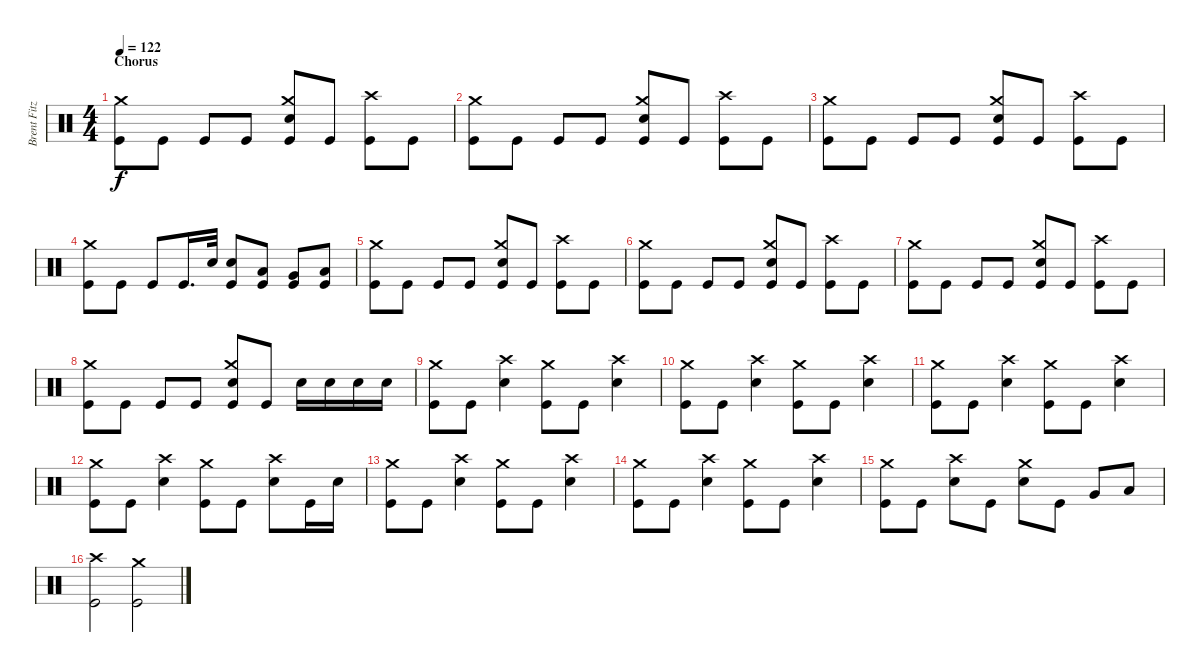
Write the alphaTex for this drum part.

\track ("Brent Fitz" "Brent Fitz") {instrument percussion}
\staff {score}
\articulation defaults
\ts (4 4)
\section ("" "Chorus")
\tempo 122
\clef neutral
\ks c
("Kick (hit)" "Crash medium (hit)").8{dy f} "Kick (hit)".8 "Kick (hit)".8 "Kick (hit)".8 ("Snare (hit) 2" "Crash medium (hit)" "Kick (hit)").8 "Kick (hit)".8 ("Kick (hit)" "Crash high (hit)").8 "Kick (hit)".8 |
("Kick (hit)" "Crash medium (hit)").8 "Kick (hit)".8 "Kick (hit)".8 "Kick (hit)".8 ("Snare (hit) 2" "Crash medium (hit)" "Kick (hit)").8 "Kick (hit)".8 ("Kick (hit)" "Crash high (hit)").8 "Kick (hit)".8 |
("Kick (hit)" "Crash medium (hit)").8 "Kick (hit)".8 "Kick (hit)".8 "Kick (hit)".8 ("Snare (hit) 2" "Crash medium (hit)" "Kick (hit)").8 "Kick (hit)".8 ("Kick (hit)" "Crash high (hit)").8 "Kick (hit)".8 |
("Kick (hit)" "Crash medium (hit)").8 "Kick (hit)".8 "Kick (hit)".8 "Kick (hit)".16{d} "Snare (hit) 2".32 ("Snare (hit) 2" "Kick (hit)").8 ("Low Tom (hit)" "Kick (hit)").8 ("Very Low Tom (hit)" "Kick (hit)").8 ("Low Floor Tom (hit)" "Kick (hit)").8 |
("Kick (hit)" "Crash medium (hit)").8 "Kick (hit)".8 "Kick (hit)".8 "Kick (hit)".8 ("Snare (hit) 2" "Crash medium (hit)" "Kick (hit)").8 "Kick (hit)".8 ("Kick (hit)" "Crash high (hit)").8 "Kick (hit)".8 |
("Kick (hit)" "Crash medium (hit)").8 "Kick (hit)".8 "Kick (hit)".8 "Kick (hit)".8 ("Snare (hit) 2" "Crash medium (hit)" "Kick (hit)").8 "Kick (hit)".8 ("Kick (hit)" "Crash high (hit)").8 "Kick (hit)".8 |
("Kick (hit)" "Crash medium (hit)").8 "Kick (hit)".8 "Kick (hit)".8 "Kick (hit)".8 ("Snare (hit) 2" "Crash medium (hit)" "Kick (hit)").8 "Kick (hit)".8 ("Kick (hit)" "Crash high (hit)").8 "Kick (hit)".8 |
("Kick (hit)" "Crash medium (hit)").8 "Kick (hit)".8 "Kick (hit)".8 "Kick (hit)".8 ("Snare (hit) 2" "Crash medium (hit)" "Kick (hit)").8 "Kick (hit)".8 "Snare (hit) 2".16 "Snare (hit) 2".16 "Snare (hit) 2".16 "Snare (hit) 2".16 |
("Kick (hit)" "Crash medium (hit)").8 "Kick (hit)".8 ("Snare (hit) 2" "Crash high (hit)").4 ("Kick (hit)" "Crash medium (hit)").8 "Kick (hit)".8 ("Snare (hit) 2" "Crash high (hit)").4 |
("Kick (hit)" "Crash medium (hit)").8 "Kick (hit)".8 ("Snare (hit) 2" "Crash high (hit)").4 ("Kick (hit)" "Crash medium (hit)").8 "Kick (hit)".8 ("Snare (hit) 2" "Crash high (hit)").4 |
("Kick (hit)" "Crash medium (hit)").8 "Kick (hit)".8 ("Snare (hit) 2" "Crash high (hit)").4 ("Kick (hit)" "Crash medium (hit)").8 "Kick (hit)".8 ("Snare (hit) 2" "Crash high (hit)").4 |
("Kick (hit)" "Crash medium (hit)").8 "Kick (hit)".8 ("Snare (hit) 2" "Crash high (hit)").4 ("Kick (hit)" "Crash medium (hit)").8 "Kick (hit)".8 ("Snare (hit) 2" "Crash high (hit)").8 "Kick (hit)".16 "Snare (hit) 2".16 |
("Kick (hit)" "Crash medium (hit)").8 "Kick (hit)".8 ("Snare (hit) 2" "Crash high (hit)").4 ("Kick (hit)" "Crash medium (hit)").8 "Kick (hit)".8 ("Snare (hit) 2" "Crash high (hit)").4 |
("Kick (hit)" "Crash medium (hit)").8 "Kick (hit)".8 ("Snare (hit) 2" "Crash high (hit)").4 ("Kick (hit)" "Crash medium (hit)").8 "Kick (hit)".8 ("Snare (hit) 2" "Crash high (hit)").4 |
("Kick (hit)" "Crash medium (hit)").8 "Kick (hit)".8 ("Snare (hit) 2" "Crash high (hit)").8 "Kick (hit)".8 ("Snare (hit) 2" "Crash medium (hit)").8 "Kick (hit)".8 "Very Low Tom (hit)".8 "Low Floor Tom (hit)".8 |
("Kick (hit)" "Crash high (hit)").2 ("Kick (hit)" "Crash medium (hit)").2
